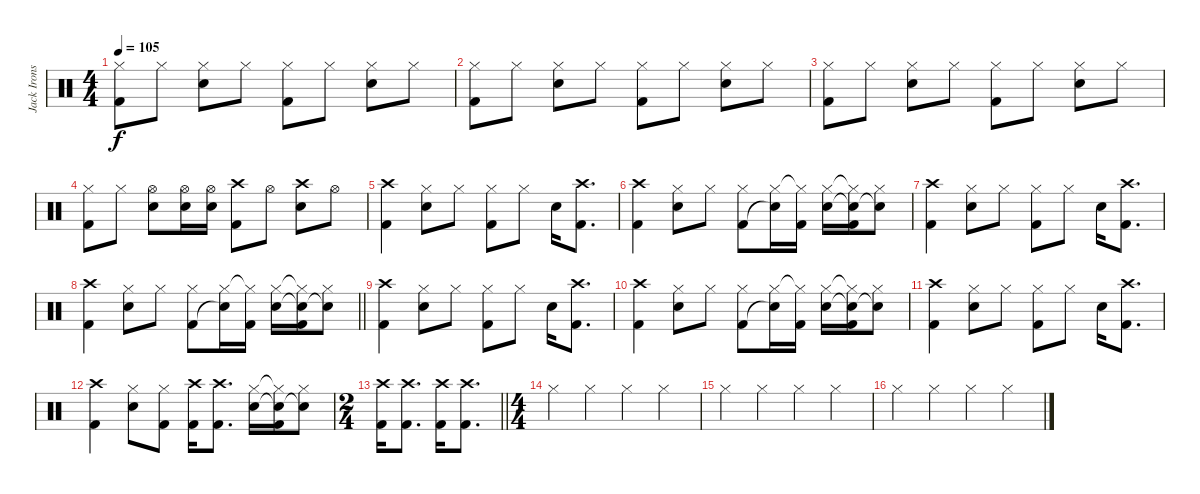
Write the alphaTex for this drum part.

\track ("Jack Irons" "Jack Irons") {instrument percussion}
\staff {score}
\articulation defaults
\ts (4 4)
\tempo 105
\clef neutral
\ks c
("Hi-Hat (closed)" "Kick (hit) 2").8{dy f} "Hi-Hat (closed)".8 ("Hi-Hat (closed)" "Snare (hit) 2").8 "Hi-Hat (closed)".8 ("Hi-Hat (closed)" "Kick (hit) 2").8 "Hi-Hat (closed)".8 ("Hi-Hat (closed)" "Snare (hit) 2").8 "Hi-Hat (closed)".8 |
("Hi-Hat (closed)" "Kick (hit) 2").8 "Hi-Hat (closed)".8 ("Hi-Hat (closed)" "Snare (hit) 2").8 "Hi-Hat (closed)".8 ("Hi-Hat (closed)" "Kick (hit) 2").8 "Hi-Hat (closed)".8 ("Hi-Hat (closed)" "Snare (hit) 2").8 "Hi-Hat (closed)".8 |
("Hi-Hat (closed)" "Kick (hit) 2").8 "Hi-Hat (closed)".8 ("Hi-Hat (closed)" "Snare (hit) 2").8 "Hi-Hat (closed)".8 ("Hi-Hat (closed)" "Kick (hit) 2").8 "Hi-Hat (closed)".8 ("Hi-Hat (closed)" "Snare (hit) 2").8 "Hi-Hat (closed)".8 |
("Hi-Hat (closed)" "Kick (hit) 2").8 "Hi-Hat (closed)".8 ("Hi-Hat (open)" "Snare (hit) 2").8 ("Hi-Hat (open)" "Snare (hit) 2").16 ("Hi-Hat (open)" "Snare (hit) 2").16 ("Crash high (hit)" "Kick (hit) 2").8 "Hi-Hat (open)".8 ("Crash high (hit)" "Snare (hit) 2").8 "Hi-Hat (open)".8 |
("Crash high (hit)" "Kick (hit) 2").4 ("Hi-Hat (closed)" "Snare (hit) 2").8 "Hi-Hat (closed)".8 ("Hi-Hat (closed)" "Kick (hit) 2").8 "Hi-Hat (closed)".8 "Snare (hit) 2".16 ("Crash high (hit)" "Kick (hit) 2").8{d} |
("Crash high (hit)" "Kick (hit) 2").4 ("Hi-Hat (closed)" "Snare (hit) 2").8 "Hi-Hat (closed)".8 ("Hi-Hat (closed)" "Kick (hit) 2").8 ("Hi-Hat (closed)" "Snare (hit)"{t}).16 ("Hi-Hat (closed)"{t} "Kick (hit) 2").16 ("Hi-Hat (closed)" "Snare (hit) 2").16 ("Hi-Hat (closed)"{t} "Snare (hit)"{t} "Kick (hit) 2").16 ("Hi-Hat (closed)" "Snare (hit)"{t}).8 |
("Crash high (hit)" "Kick (hit) 2").4 ("Hi-Hat (closed)" "Snare (hit) 2").8 "Hi-Hat (closed)".8 ("Hi-Hat (closed)" "Kick (hit) 2").8 "Hi-Hat (closed)".8 "Snare (hit) 2".16 ("Crash high (hit)" "Kick (hit) 2").8{d} |
\barLineRight lightlight
("Crash high (hit)" "Kick (hit) 2").4 ("Hi-Hat (closed)" "Snare (hit) 2").8 "Hi-Hat (closed)".8 ("Hi-Hat (closed)" "Kick (hit) 2").8 ("Hi-Hat (closed)" "Snare (hit)"{t}).16 ("Hi-Hat (closed)"{t} "Kick (hit) 2").16 ("Hi-Hat (closed)" "Snare (hit) 2").16 ("Hi-Hat (closed)"{t} "Snare (hit)"{t} "Kick (hit) 2").16 ("Hi-Hat (closed)" "Snare (hit)"{t}).8 |
("Crash high (hit)" "Kick (hit) 2").4 ("Hi-Hat (closed)" "Snare (hit) 2").8 "Hi-Hat (closed)".8 ("Hi-Hat (closed)" "Kick (hit) 2").8 "Hi-Hat (closed)".8 "Snare (hit) 2".16 ("Crash high (hit)" "Kick (hit) 2").8{d} |
("Crash high (hit)" "Kick (hit) 2").4 ("Hi-Hat (closed)" "Snare (hit) 2").8 "Hi-Hat (closed)".8 ("Hi-Hat (closed)" "Kick (hit) 2").8 ("Hi-Hat (closed)" "Snare (hit)"{t}).16 ("Hi-Hat (closed)"{t} "Kick (hit) 2").16 ("Hi-Hat (closed)" "Snare (hit) 2").16 ("Hi-Hat (closed)"{t} "Snare (hit)"{t} "Kick (hit) 2").16 ("Hi-Hat (closed)" "Snare (hit)"{t}).8 |
("Crash high (hit)" "Kick (hit) 2").4 ("Hi-Hat (closed)" "Snare (hit) 2").8 "Hi-Hat (closed)".8 ("Hi-Hat (closed)" "Kick (hit) 2").8 "Hi-Hat (closed)".8 "Snare (hit) 2".16 ("Crash high (hit)" "Kick (hit) 2").8{d} |
("Crash high (hit)" "Kick (hit) 2").4 ("Hi-Hat (closed)" "Snare (hit) 2").8 ("Hi-Hat (closed)" "Kick (hit) 2").8 ("Crash high (hit)" "Kick (hit) 2").16 ("Crash high (hit)" "Kick (hit) 2").8{d} ("Hi-Hat (closed)" "Snare (hit) 2").16 ("Hi-Hat (closed)"{t} "Snare (hit)"{t} "Kick (hit) 2").16 ("Hi-Hat (closed)" "Snare (hit)"{t}).8 |
\ts (2 4)
\barLineRight lightlight
("Crash high (hit)" "Kick (hit) 2").16 ("Crash high (hit)" "Kick (hit) 2").8{d} ("Crash high (hit)" "Kick (hit) 2").16 ("Crash high (hit)" "Kick (hit) 2").8{d} |
\ts (4 4)
"Hi-Hat (closed)".4 "Hi-Hat (closed)".4 "Hi-Hat (closed)".4 "Hi-Hat (closed)".4 |
"Hi-Hat (closed)".4 "Hi-Hat (closed)".4 "Hi-Hat (closed)".4 "Hi-Hat (closed)".4 |
"Hi-Hat (closed)".4 "Hi-Hat (closed)".4 "Hi-Hat (closed)".4 "Hi-Hat (closed)".4
